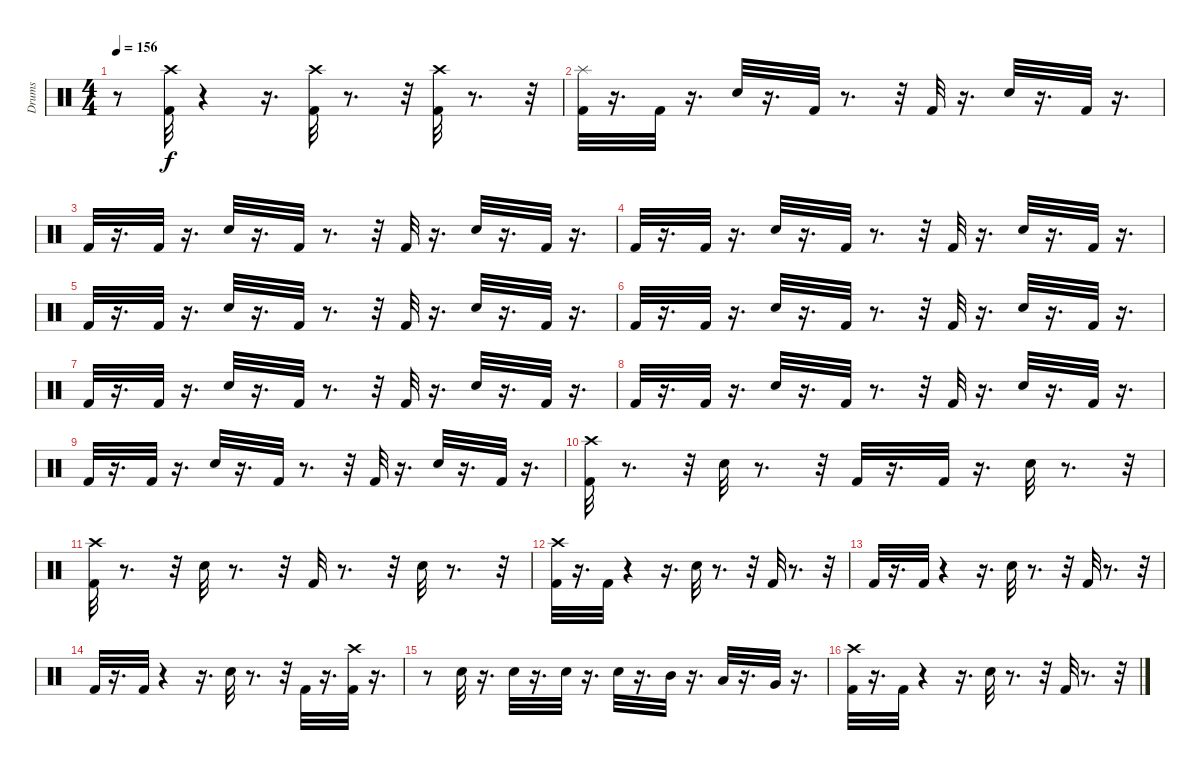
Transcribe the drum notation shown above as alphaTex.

\track ("Drums" "Drums") {instrument percussion}
\staff {score}
\articulation defaults
\ts (4 4)
\tempo 156
\clef neutral
\ks c
r.8{dy f} ("Kick (hit) 2" "Crash high (hit)").32 r.4 r.16{d} ("Crash high (hit)" "Kick (hit) 2").32 r.8{d} r.32 ("Kick (hit) 2" "Crash high (hit)").32 r.8{d} r.32 |
("Kick (hit) 2" "Splash (hit)").32 r.16{d} "Kick (hit) 2".32 r.16{d} "Snare (hit) 2".32 r.16{d} "Kick (hit) 2".32 r.8{d} r.32 "Kick (hit) 2".32 r.16{d} "Snare (hit) 2".32 r.16{d} "Kick (hit) 2".32 r.16{d} |
"Kick (hit) 2".32 r.16{d} "Kick (hit) 2".32 r.16{d} "Snare (hit) 2".32 r.16{d} "Kick (hit) 2".32 r.8{d} r.32 "Kick (hit) 2".32 r.16{d} "Snare (hit) 2".32 r.16{d} "Kick (hit) 2".32 r.16{d} |
"Kick (hit) 2".32 r.16{d} "Kick (hit) 2".32 r.16{d} "Snare (hit) 2".32 r.16{d} "Kick (hit) 2".32 r.8{d} r.32 "Kick (hit) 2".32 r.16{d} "Snare (hit) 2".32 r.16{d} "Kick (hit) 2".32 r.16{d} |
"Kick (hit) 2".32 r.16{d} "Kick (hit) 2".32 r.16{d} "Snare (hit) 2".32 r.16{d} "Kick (hit) 2".32 r.8{d} r.32 "Kick (hit) 2".32 r.16{d} "Snare (hit) 2".32 r.16{d} "Kick (hit) 2".32 r.16{d} |
"Kick (hit) 2".32 r.16{d} "Kick (hit) 2".32 r.16{d} "Snare (hit) 2".32 r.16{d} "Kick (hit) 2".32 r.8{d} r.32 "Kick (hit) 2".32 r.16{d} "Snare (hit) 2".32 r.16{d} "Kick (hit) 2".32 r.16{d} |
"Kick (hit) 2".32 r.16{d} "Kick (hit) 2".32 r.16{d} "Snare (hit) 2".32 r.16{d} "Kick (hit) 2".32 r.8{d} r.32 "Kick (hit) 2".32 r.16{d} "Snare (hit) 2".32 r.16{d} "Kick (hit) 2".32 r.16{d} |
"Kick (hit) 2".32 r.16{d} "Kick (hit) 2".32 r.16{d} "Snare (hit) 2".32 r.16{d} "Kick (hit) 2".32 r.8{d} r.32 "Kick (hit) 2".32 r.16{d} "Snare (hit) 2".32 r.16{d} "Kick (hit) 2".32 r.16{d} |
"Kick (hit) 2".32 r.16{d} "Kick (hit) 2".32 r.16{d} "Snare (hit) 2".32 r.16{d} "Kick (hit) 2".32 r.8{d} r.32 "Kick (hit) 2".32 r.16{d} "Snare (hit) 2".32 r.16{d} "Kick (hit) 2".32 r.16{d} |
("Crash high (hit)" "Kick (hit) 2").32 r.8{d} r.32 "Snare (hit) 2".32 r.8{d} r.32 "Kick (hit) 2".32 r.16{d} "Kick (hit) 2".32 r.16{d} "Snare (hit) 2".32 r.8{d} r.32 |
("Crash high (hit)" "Kick (hit) 2").32 r.8{d} r.32 "Snare (hit) 2".32 r.8{d} r.32 "Kick (hit) 2".32 r.8{d} r.32 "Snare (hit) 2".32 r.8{d} r.32 |
("Crash high (hit)" "Kick (hit) 2").32 r.16{d} "Kick (hit) 2".32 r.4 r.16{d} "Snare (hit) 2".32 r.8{d} r.32 "Kick (hit) 2".32 r.8{d} r.32 |
"Kick (hit) 2".32 r.16{d} "Kick (hit) 2".32 r.4 r.16{d} "Snare (hit) 2".32 r.8{d} r.32 "Kick (hit) 2".32 r.8{d} r.32 |
"Kick (hit) 2".32 r.16{d} "Kick (hit) 2".32 r.4 r.16{d} "Snare (hit) 2".32 r.8{d} r.32 "Kick (hit) 2".32 r.16{d} ("Crash high (hit)" "Kick (hit) 2").32 r.16{d} |
r.8 "Snare (hit) 2".32 r.16{d} "Snare (hit) 2".32 r.16{d} "Snare (hit) 2".32 r.16{d} "Snare (hit) 2".32 r.16{d} "Mid Tom (hit)".32 r.16{d} "Low Tom (hit)".32 r.16{d} "Very Low Tom (hit)".32 r.16{d} |
("Crash high (hit)" "Kick (hit) 2").32 r.16{d} "Kick (hit) 2".32 r.4 r.16{d} "Snare (hit) 2".32 r.8{d} r.32 "Kick (hit) 2".32 r.8{d} r.32
